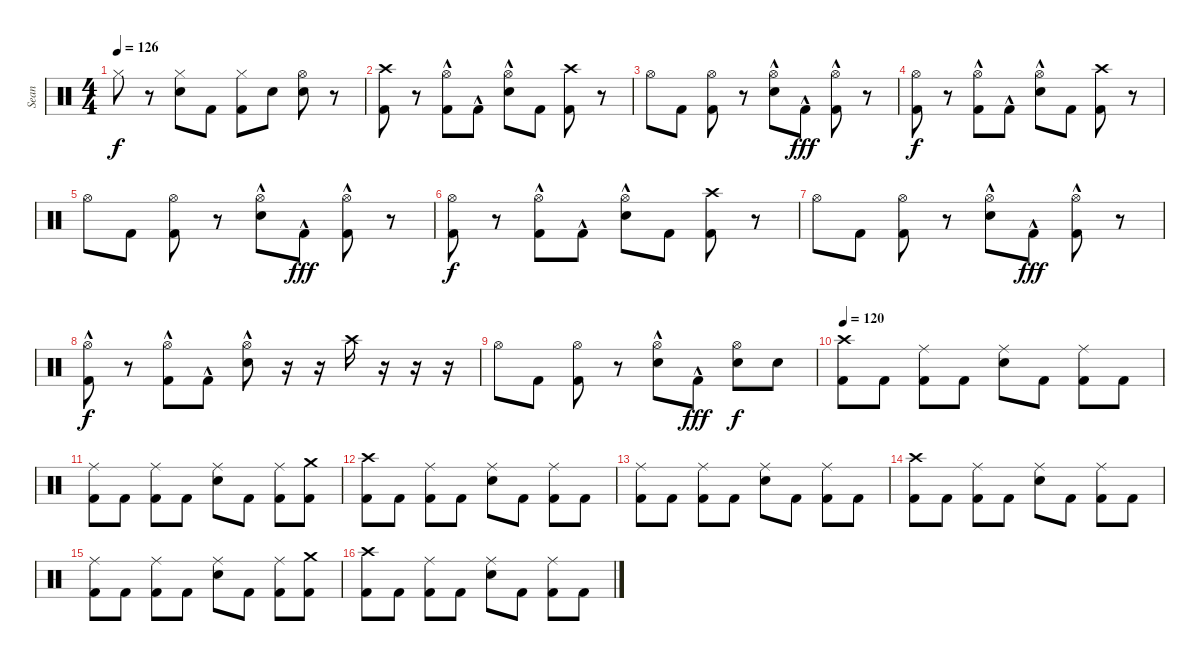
\track ("Sean" "Sean") {instrument percussion}
\staff {score}
\articulation defaults
\ts (4 4)
\tempo 126
\clef neutral
\ks c "Hi-Hat (closed)".8{dy f}
r.8 ("Hi-Hat (closed)" "Snare (hit) 2").8 "Kick (hit) 2".8 ("Hi-Hat (closed)" "Kick (hit) 2").8 "Snare (hit) 2".8 ("Hi-Hat (open)" "Snare (hit) 2").8 r.8 |
("Crash high (hit)" "Kick (hit) 2").8 r.8 ("Hi-Hat (open)" "Kick (hit) 2"{hac}).8 "Kick (hit) 2"{hac}.8 ("Hi-Hat (open)" "Snare (hit) 2"{hac}).8 "Kick (hit) 2".8 ("Crash high (hit)" "Kick (hit) 2").8 r.8 |
"Hi-Hat (open)".8 "Kick (hit) 2".8 ("Hi-Hat (open)" "Kick (hit) 2").8 r.8 ("Hi-Hat (open)" "Snare (hit) 2"{hac}).8 "Kick (hit) 2"{hac}.8{dy fff} ("Hi-Hat (open)" "Kick (hit) 2"{hac}).8 r.8 |
("Hi-Hat (open)" "Kick (hit) 2").8{dy f} r.8 ("Hi-Hat (open)" "Kick (hit) 2"{hac}).8 "Kick (hit) 2"{hac}.8 ("Hi-Hat (open)" "Snare (hit) 2"{hac}).8 "Kick (hit) 2".8 ("Crash high (hit)" "Kick (hit) 2").8 r.8 |
"Hi-Hat (open)".8 "Kick (hit) 2".8 ("Hi-Hat (open)" "Kick (hit) 2").8 r.8 ("Hi-Hat (open)" "Snare (hit) 2"{hac}).8 "Kick (hit) 2"{hac}.8{dy fff} ("Hi-Hat (open)" "Kick (hit) 2"{hac}).8 r.8 |
("Hi-Hat (open)" "Kick (hit) 2").8{dy f} r.8 ("Hi-Hat (open)" "Kick (hit) 2"{hac}).8 "Kick (hit) 2"{hac}.8 ("Hi-Hat (open)" "Snare (hit) 2"{hac}).8 "Kick (hit) 2".8 ("Crash high (hit)" "Kick (hit) 2").8 r.8 |
"Hi-Hat (open)".8 "Kick (hit) 2".8 ("Hi-Hat (open)" "Kick (hit) 2").8 r.8 ("Hi-Hat (open)" "Snare (hit) 2"{hac}).8 "Kick (hit) 2"{hac}.8{dy fff} ("Hi-Hat (open)" "Kick (hit) 2"{hac}).8 r.8 |
("Hi-Hat (open)" "Kick (hit) 2"{hac}).8{dy f} r.8 ("Hi-Hat (open)" "Kick (hit) 2"{hac}).8 "Kick (hit) 2"{hac}.8 ("Hi-Hat (open)" "Snare (hit) 2"{hac}).8 r.16 r.16 "Crash high (hit)".16 r.16 r.16 r.16 |
"Hi-Hat (open)".8 "Kick (hit) 2".8 ("Hi-Hat (open)" "Kick (hit) 2").8 r.8 ("Hi-Hat (open)" "Snare (hit) 2"{hac}).8 "Kick (hit) 2"{hac}.8{dy fff} ("Hi-Hat (open)" "Snare (hit) 2").8{dy f} "Snare (hit) 2".8 |
\tempo 120
("Crash high (hit)" "Kick (hit) 2").8 "Kick (hit) 2".8 ("Ride (middle)" "Kick (hit) 2").8 "Kick (hit) 2".8 ("Ride (middle)" "Snare (hit) 2").8 "Kick (hit) 2".8 ("Ride (middle)" "Kick (hit) 2").8 "Kick (hit) 2".8 |
("Ride (middle)" "Kick (hit) 2").8 "Kick (hit) 2".8 ("Ride (middle)" "Kick (hit) 2").8 "Kick (hit) 2".8 ("Ride (middle)" "Snare (hit) 2").8 "Kick (hit) 2".8 ("Ride (middle)" "Kick (hit) 2").8 ("Crash medium (hit)" "Kick (hit) 2").8 |
("Crash high (hit)" "Kick (hit) 2").8 "Kick (hit) 2".8 ("Ride (middle)" "Kick (hit) 2").8 "Kick (hit) 2".8 ("Ride (middle)" "Snare (hit) 2").8 "Kick (hit) 2".8 ("Ride (middle)" "Kick (hit) 2").8 "Kick (hit) 2".8 |
("Ride (middle)" "Kick (hit) 2").8 "Kick (hit) 2".8 ("Ride (middle)" "Kick (hit) 2").8 "Kick (hit) 2".8 ("Ride (middle)" "Snare (hit) 2").8 "Kick (hit) 2".8 ("Ride (middle)" "Kick (hit) 2").8 "Kick (hit) 2".8 |
("Crash high (hit)" "Kick (hit) 2").8 "Kick (hit) 2".8 ("Ride (middle)" "Kick (hit) 2").8 "Kick (hit) 2".8 ("Ride (middle)" "Snare (hit) 2").8 "Kick (hit) 2".8 ("Ride (middle)" "Kick (hit) 2").8 "Kick (hit) 2".8 |
("Ride (middle)" "Kick (hit) 2").8 "Kick (hit) 2".8 ("Ride (middle)" "Kick (hit) 2").8 "Kick (hit) 2".8 ("Ride (middle)" "Snare (hit) 2").8 "Kick (hit) 2".8 ("Ride (middle)" "Kick (hit) 2").8 ("Crash medium (hit)" "Kick (hit) 2").8 |
("Crash high (hit)" "Kick (hit) 2").8 "Kick (hit) 2".8 ("Ride (middle)" "Kick (hit) 2").8 "Kick (hit) 2".8 ("Ride (middle)" "Snare (hit) 2").8 "Kick (hit) 2".8 ("Ride (middle)" "Kick (hit) 2").8 "Kick (hit) 2".8
